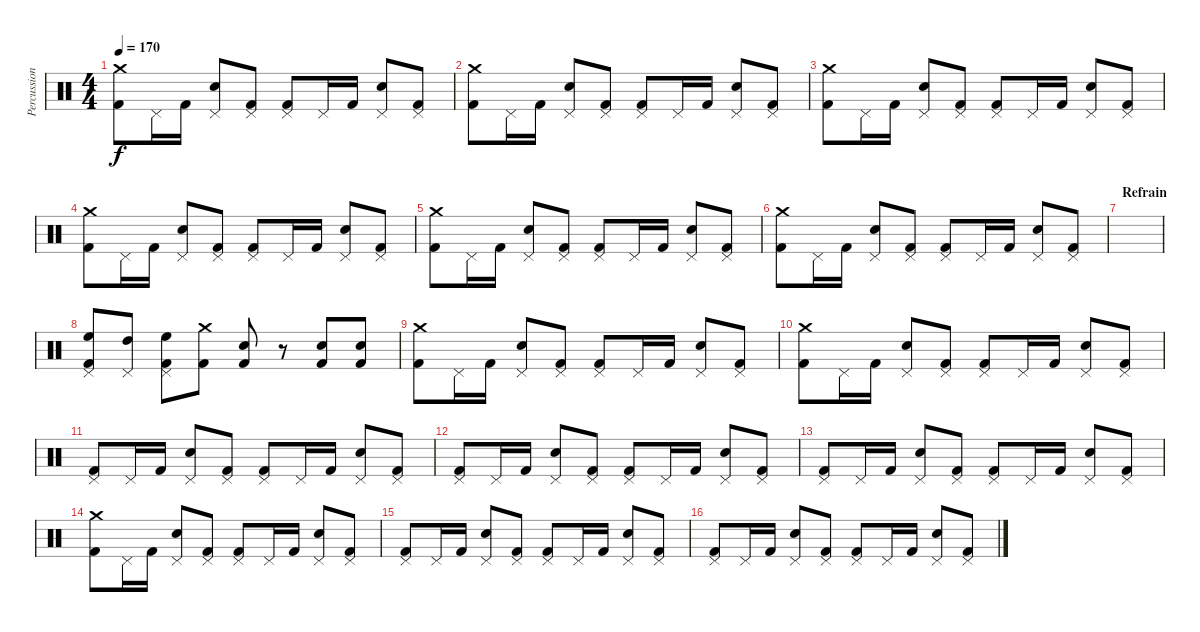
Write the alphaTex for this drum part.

\track ("Percussions" "Percussion") {instrument percussion}
\staff {score}
\articulation defaults
\ts (4 4)
\tempo 170
\clef neutral
\ks c
("Crash medium (hit)" "Kick (hit) 2").8{dy f} "Pedal Hi-Hat (hit)".16 "Kick (hit) 2".16 ("Pedal Hi-Hat (hit)" "Snare (hit) 2").8 ("Pedal Hi-Hat (hit)" "Kick (hit) 2").8 ("Pedal Hi-Hat (hit)" "Kick (hit) 2").8 "Pedal Hi-Hat (hit)".16 "Kick (hit) 2".16 ("Pedal Hi-Hat (hit)" "Snare (hit) 2").8 ("Pedal Hi-Hat (hit)" "Kick (hit) 2").8 |
("Crash medium (hit)" "Kick (hit) 2").8 "Pedal Hi-Hat (hit)".16 "Kick (hit) 2".16 ("Pedal Hi-Hat (hit)" "Snare (hit) 2").8 ("Pedal Hi-Hat (hit)" "Kick (hit) 2").8 ("Pedal Hi-Hat (hit)" "Kick (hit) 2").8 "Pedal Hi-Hat (hit)".16 "Kick (hit) 2".16 ("Pedal Hi-Hat (hit)" "Snare (hit) 2").8 ("Pedal Hi-Hat (hit)" "Kick (hit) 2").8 |
("Crash medium (hit)" "Kick (hit) 2").8 "Pedal Hi-Hat (hit)".16 "Kick (hit) 2".16 ("Pedal Hi-Hat (hit)" "Snare (hit) 2").8 ("Pedal Hi-Hat (hit)" "Kick (hit) 2").8 ("Pedal Hi-Hat (hit)" "Kick (hit) 2").8 "Pedal Hi-Hat (hit)".16 "Kick (hit) 2".16 ("Pedal Hi-Hat (hit)" "Snare (hit) 2").8 ("Pedal Hi-Hat (hit)" "Kick (hit) 2").8 |
("Crash medium (hit)" "Kick (hit) 2").8 "Pedal Hi-Hat (hit)".16 "Kick (hit) 2".16 ("Pedal Hi-Hat (hit)" "Snare (hit) 2").8 ("Pedal Hi-Hat (hit)" "Kick (hit) 2").8 ("Pedal Hi-Hat (hit)" "Kick (hit) 2").8 "Pedal Hi-Hat (hit)".16 "Kick (hit) 2".16 ("Pedal Hi-Hat (hit)" "Snare (hit) 2").8 ("Pedal Hi-Hat (hit)" "Kick (hit) 2").8 |
("Crash medium (hit)" "Kick (hit) 2").8 "Pedal Hi-Hat (hit)".16 "Kick (hit) 2".16 ("Pedal Hi-Hat (hit)" "Snare (hit) 2").8 ("Pedal Hi-Hat (hit)" "Kick (hit) 2").8 ("Pedal Hi-Hat (hit)" "Kick (hit) 2").8 "Pedal Hi-Hat (hit)".16 "Kick (hit) 2".16 ("Pedal Hi-Hat (hit)" "Snare (hit) 2").8 ("Pedal Hi-Hat (hit)" "Kick (hit) 2").8 |
("Crash medium (hit)" "Kick (hit) 2").8 "Pedal Hi-Hat (hit)".16 "Kick (hit) 2".16 ("Pedal Hi-Hat (hit)" "Snare (hit) 2").8 ("Pedal Hi-Hat (hit)" "Kick (hit) 2").8 ("Pedal Hi-Hat (hit)" "Kick (hit) 2").8 "Pedal Hi-Hat (hit)".16 "Kick (hit) 2".16 ("Pedal Hi-Hat (hit)" "Snare (hit) 2").8 ("Pedal Hi-Hat (hit)" "Kick (hit) 2").8 |
\section ("" "Refrain")
|
("Pedal Hi-Hat (hit)" "High Floor Tom (hit)" "Kick (hit) 2").8 ("Pedal Hi-Hat (hit)" "High Tom (hit)").8 ("Pedal Hi-Hat (hit)" "High Floor Tom (hit)" "Kick (hit) 2").8 ("Crash medium (hit)" "Kick (hit) 2").8 ("Snare (hit) 2" "Kick (hit) 2").8 r.8 ("Snare (hit) 2" "Kick (hit) 2").8 ("Snare (hit) 2" "Kick (hit) 2").8 |
("Crash medium (hit)" "Kick (hit) 2").8 "Pedal Hi-Hat (hit)".16 "Kick (hit) 2".16 ("Pedal Hi-Hat (hit)" "Snare (hit) 2").8 ("Pedal Hi-Hat (hit)" "Kick (hit) 2").8 ("Pedal Hi-Hat (hit)" "Kick (hit) 2").8 "Pedal Hi-Hat (hit)".16 "Kick (hit) 2".16 ("Pedal Hi-Hat (hit)" "Snare (hit) 2").8 ("Pedal Hi-Hat (hit)" "Kick (hit) 2").8 |
("Crash medium (hit)" "Kick (hit) 2").8 "Pedal Hi-Hat (hit)".16 "Kick (hit) 2".16 ("Pedal Hi-Hat (hit)" "Snare (hit) 2").8 ("Pedal Hi-Hat (hit)" "Kick (hit) 2").8 ("Pedal Hi-Hat (hit)" "Kick (hit) 2").8 "Pedal Hi-Hat (hit)".16 "Kick (hit) 2".16 ("Pedal Hi-Hat (hit)" "Snare (hit) 2").8 ("Pedal Hi-Hat (hit)" "Kick (hit) 2").8 |
("Pedal Hi-Hat (hit)" "Kick (hit) 2").8 "Pedal Hi-Hat (hit)".16 "Kick (hit) 2".16 ("Pedal Hi-Hat (hit)" "Snare (hit) 2").8 ("Pedal Hi-Hat (hit)" "Kick (hit) 2").8 ("Pedal Hi-Hat (hit)" "Kick (hit) 2").8 "Pedal Hi-Hat (hit)".16 "Kick (hit) 2".16 ("Pedal Hi-Hat (hit)" "Snare (hit) 2").8 ("Pedal Hi-Hat (hit)" "Kick (hit) 2").8 |
("Pedal Hi-Hat (hit)" "Kick (hit) 2").8 "Pedal Hi-Hat (hit)".16 "Kick (hit) 2".16 ("Pedal Hi-Hat (hit)" "Snare (hit) 2").8 ("Pedal Hi-Hat (hit)" "Kick (hit) 2").8 ("Pedal Hi-Hat (hit)" "Kick (hit) 2").8 "Pedal Hi-Hat (hit)".16 "Kick (hit) 2".16 ("Pedal Hi-Hat (hit)" "Snare (hit) 2").8 ("Pedal Hi-Hat (hit)" "Kick (hit) 2").8 |
("Pedal Hi-Hat (hit)" "Kick (hit) 2").8 "Pedal Hi-Hat (hit)".16 "Kick (hit) 2".16 ("Pedal Hi-Hat (hit)" "Snare (hit) 2").8 ("Pedal Hi-Hat (hit)" "Kick (hit) 2").8 ("Pedal Hi-Hat (hit)" "Kick (hit) 2").8 "Pedal Hi-Hat (hit)".16 "Kick (hit) 2".16 ("Pedal Hi-Hat (hit)" "Snare (hit) 2").8 ("Pedal Hi-Hat (hit)" "Kick (hit) 2").8 |
("Crash medium (hit)" "Kick (hit) 2").8 "Pedal Hi-Hat (hit)".16 "Kick (hit) 2".16 ("Pedal Hi-Hat (hit)" "Snare (hit) 2").8 ("Pedal Hi-Hat (hit)" "Kick (hit) 2").8 ("Pedal Hi-Hat (hit)" "Kick (hit) 2").8 "Pedal Hi-Hat (hit)".16 "Kick (hit) 2".16 ("Pedal Hi-Hat (hit)" "Snare (hit) 2").8 ("Pedal Hi-Hat (hit)" "Kick (hit) 2").8 |
("Pedal Hi-Hat (hit)" "Kick (hit) 2").8 "Pedal Hi-Hat (hit)".16 "Kick (hit) 2".16 ("Pedal Hi-Hat (hit)" "Snare (hit) 2").8 ("Pedal Hi-Hat (hit)" "Kick (hit) 2").8 ("Pedal Hi-Hat (hit)" "Kick (hit) 2").8 "Pedal Hi-Hat (hit)".16 "Kick (hit) 2".16 ("Pedal Hi-Hat (hit)" "Snare (hit) 2").8 ("Pedal Hi-Hat (hit)" "Kick (hit) 2").8 |
("Pedal Hi-Hat (hit)" "Kick (hit) 2").8 "Pedal Hi-Hat (hit)".16 "Kick (hit) 2".16 ("Pedal Hi-Hat (hit)" "Snare (hit) 2").8 ("Pedal Hi-Hat (hit)" "Kick (hit) 2").8 ("Pedal Hi-Hat (hit)" "Kick (hit) 2").8 "Pedal Hi-Hat (hit)".16 "Kick (hit) 2".16 ("Pedal Hi-Hat (hit)" "Snare (hit) 2").8 ("Pedal Hi-Hat (hit)" "Kick (hit) 2").8
